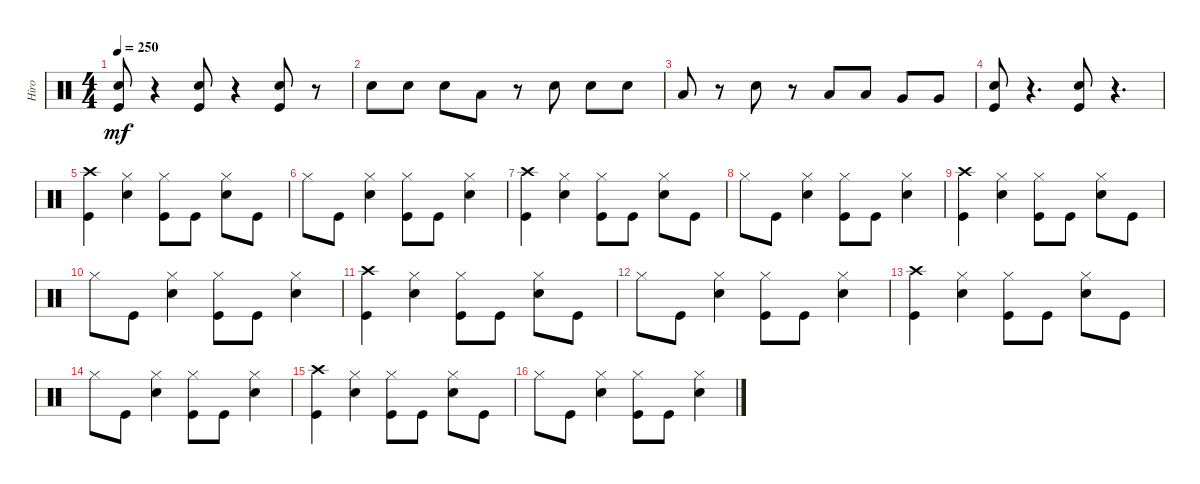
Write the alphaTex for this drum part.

\track ("Hiro" "Hiro") {instrument percussion}
\staff {score}
\articulation defaults
\ts (4 4)
\tempo 250
\clef neutral
\ks c
("Kick (hit)" "Electric Snare (hit)").8{dy mf} r.4 ("Kick (hit)" "Electric Snare (hit)").8 r.4 ("Kick (hit)" "Electric Snare (hit)").8 r.8 |
"Electric Snare (hit)".8 "Electric Snare (hit)".8 "Electric Snare (hit)".8 "Low Tom (hit)".8 r.8 "Electric Snare (hit)".8 "Electric Snare (hit)".8 "Electric Snare (hit)".8 |
"Low Tom (hit)".8 r.8 "Electric Snare (hit)".8 r.8 "Low Tom (hit)".8 "Low Tom (hit)".8 "Very Low Tom (hit)".8 "Very Low Tom (hit)".8 |
("Kick (hit)" "Electric Snare (hit)").8 r.4{d} ("Kick (hit)" "Electric Snare (hit)").8 r.4{d} |
("Crash high (hit)" "Kick (hit)").4 ("Hi-Hat (closed)" "Electric Snare (hit)").4 ("Hi-Hat (closed)" "Kick (hit)").8 "Kick (hit)".8 ("Hi-Hat (closed)" "Electric Snare (hit)").8 "Kick (hit)".8 |
"Hi-Hat (closed)".8 "Kick (hit)".8 ("Hi-Hat (closed)" "Electric Snare (hit)").4 ("Hi-Hat (closed)" "Kick (hit)").8 "Kick (hit)".8 ("Hi-Hat (closed)" "Electric Snare (hit)").4 |
("Kick (hit)" "Crash high (hit)").4 ("Electric Snare (hit)" "Hi-Hat (closed)").4 ("Kick (hit)" "Hi-Hat (closed)").8 "Kick (hit)".8 ("Electric Snare (hit)" "Hi-Hat (closed)").8 "Kick (hit)".8 |
"Hi-Hat (closed)".8 "Kick (hit)".8 ("Electric Snare (hit)" "Hi-Hat (closed)").4 ("Kick (hit)" "Hi-Hat (closed)").8 "Kick (hit)".8 ("Electric Snare (hit)" "Hi-Hat (closed)").4 |
("Kick (hit)" "Crash high (hit)").4 ("Electric Snare (hit)" "Hi-Hat (closed)").4 ("Kick (hit)" "Hi-Hat (closed)").8 "Kick (hit)".8 ("Electric Snare (hit)" "Hi-Hat (closed)").8 "Kick (hit)".8 |
"Hi-Hat (closed)".8 "Kick (hit)".8 ("Electric Snare (hit)" "Hi-Hat (closed)").4 ("Kick (hit)" "Hi-Hat (closed)").8 "Kick (hit)".8 ("Electric Snare (hit)" "Hi-Hat (closed)").4 |
("Crash high (hit)" "Kick (hit)").4 ("Hi-Hat (closed)" "Electric Snare (hit)").4 ("Hi-Hat (closed)" "Kick (hit)").8 "Kick (hit)".8 ("Hi-Hat (closed)" "Electric Snare (hit)").8 "Kick (hit)".8 |
"Hi-Hat (closed)".8 "Kick (hit)".8 ("Hi-Hat (closed)" "Electric Snare (hit)").4 ("Hi-Hat (closed)" "Kick (hit)").8 "Kick (hit)".8 ("Hi-Hat (closed)" "Electric Snare (hit)").4 |
("Kick (hit)" "Crash high (hit)").4 ("Electric Snare (hit)" "Hi-Hat (closed)").4 ("Kick (hit)" "Hi-Hat (closed)").8 "Kick (hit)".8 ("Electric Snare (hit)" "Hi-Hat (closed)").8 "Kick (hit)".8 |
"Hi-Hat (closed)".8 "Kick (hit)".8 ("Electric Snare (hit)" "Hi-Hat (closed)").4 ("Kick (hit)" "Hi-Hat (closed)").8 "Kick (hit)".8 ("Electric Snare (hit)" "Hi-Hat (closed)").4 |
("Crash high (hit)" "Kick (hit)").4 ("Hi-Hat (closed)" "Electric Snare (hit)").4 ("Hi-Hat (closed)" "Kick (hit)").8 "Kick (hit)".8 ("Hi-Hat (closed)" "Electric Snare (hit)").8 "Kick (hit)".8 |
"Hi-Hat (closed)".8 "Kick (hit)".8 ("Hi-Hat (closed)" "Electric Snare (hit)").4 ("Hi-Hat (closed)" "Kick (hit)").8 "Kick (hit)".8 ("Hi-Hat (closed)" "Electric Snare (hit)").4
